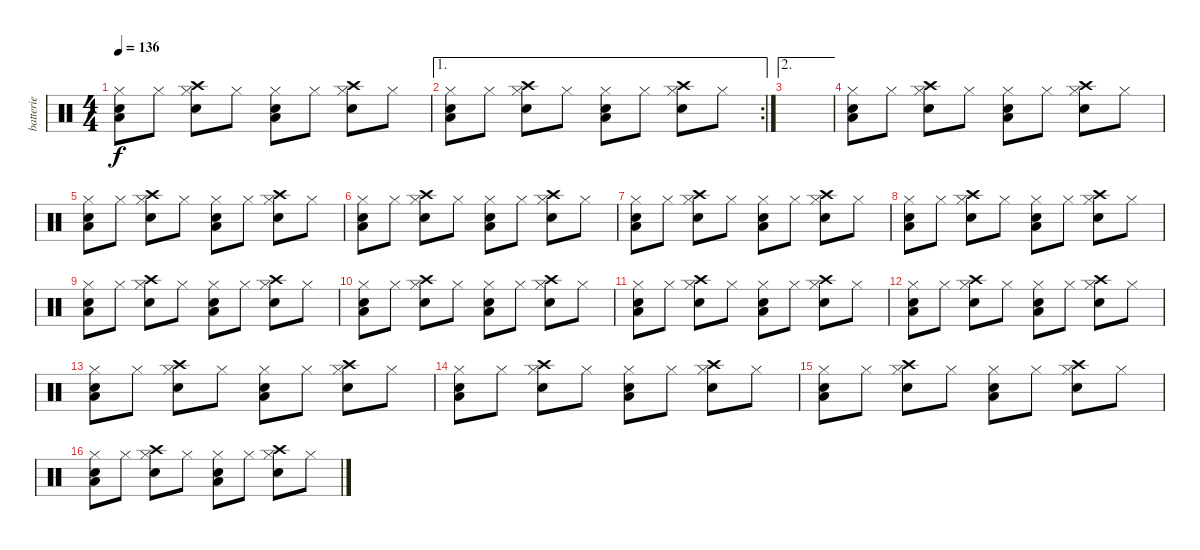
\track ("batterie" "batterie") {instrument percussion}
\staff {score}
\articulation defaults
\ts (4 4)
\tempo 136
\clef neutral
\ks c
("Hi-Hat (closed)" "Snare (hit) 2" "Low Floor Tom (hit)").8{dy f} "Hi-Hat (closed)".8 ("Hi-Hat (closed)" "Crash high (hit)" "Electric Snare (hit)").8 "Hi-Hat (closed)".8 ("Hi-Hat (closed)" "Snare (hit) 2" "Low Floor Tom (hit)").8 "Hi-Hat (closed)".8 ("Hi-Hat (closed)" "Crash high (hit)" "Electric Snare (hit)").8 "Hi-Hat (closed)".8 |
\ae 1
\rc 2
("Hi-Hat (closed)" "Snare (hit) 2" "Low Floor Tom (hit)").8 "Hi-Hat (closed)".8 ("Hi-Hat (closed)" "Crash high (hit)" "Electric Snare (hit)").8 "Hi-Hat (closed)".8 ("Hi-Hat (closed)" "Snare (hit) 2" "Low Floor Tom (hit)").8 "Hi-Hat (closed)".8 ("Hi-Hat (closed)" "Crash high (hit)" "Electric Snare (hit)").8 "Hi-Hat (closed)".8 |
\ae 2
|
("Hi-Hat (closed)" "Snare (hit) 2" "Low Floor Tom (hit)").8 "Hi-Hat (closed)".8 ("Hi-Hat (closed)" "Crash high (hit)" "Electric Snare (hit)").8 "Hi-Hat (closed)".8 ("Hi-Hat (closed)" "Snare (hit) 2" "Low Floor Tom (hit)").8 "Hi-Hat (closed)".8 ("Hi-Hat (closed)" "Crash high (hit)" "Electric Snare (hit)").8 "Hi-Hat (closed)".8 |
("Hi-Hat (closed)" "Snare (hit) 2" "Low Floor Tom (hit)").8 "Hi-Hat (closed)".8 ("Hi-Hat (closed)" "Crash high (hit)" "Electric Snare (hit)").8 "Hi-Hat (closed)".8 ("Hi-Hat (closed)" "Snare (hit) 2" "Low Floor Tom (hit)").8 "Hi-Hat (closed)".8 ("Hi-Hat (closed)" "Crash high (hit)" "Electric Snare (hit)").8 "Hi-Hat (closed)".8 |
("Hi-Hat (closed)" "Snare (hit) 2" "Low Floor Tom (hit)").8 "Hi-Hat (closed)".8 ("Hi-Hat (closed)" "Crash high (hit)" "Electric Snare (hit)").8 "Hi-Hat (closed)".8 ("Hi-Hat (closed)" "Snare (hit) 2" "Low Floor Tom (hit)").8 "Hi-Hat (closed)".8 ("Hi-Hat (closed)" "Crash high (hit)" "Electric Snare (hit)").8 "Hi-Hat (closed)".8 |
("Hi-Hat (closed)" "Snare (hit) 2" "Low Floor Tom (hit)").8 "Hi-Hat (closed)".8 ("Hi-Hat (closed)" "Crash high (hit)" "Electric Snare (hit)").8 "Hi-Hat (closed)".8 ("Hi-Hat (closed)" "Snare (hit) 2" "Low Floor Tom (hit)").8 "Hi-Hat (closed)".8 ("Hi-Hat (closed)" "Crash high (hit)" "Electric Snare (hit)").8 "Hi-Hat (closed)".8 |
("Hi-Hat (closed)" "Snare (hit) 2" "Low Floor Tom (hit)").8 "Hi-Hat (closed)".8 ("Hi-Hat (closed)" "Crash high (hit)" "Electric Snare (hit)").8 "Hi-Hat (closed)".8 ("Hi-Hat (closed)" "Snare (hit) 2" "Low Floor Tom (hit)").8 "Hi-Hat (closed)".8 ("Hi-Hat (closed)" "Crash high (hit)" "Electric Snare (hit)").8 "Hi-Hat (closed)".8 |
("Hi-Hat (closed)" "Snare (hit) 2" "Low Floor Tom (hit)").8 "Hi-Hat (closed)".8 ("Hi-Hat (closed)" "Crash high (hit)" "Electric Snare (hit)").8 "Hi-Hat (closed)".8 ("Hi-Hat (closed)" "Snare (hit) 2" "Low Floor Tom (hit)").8 "Hi-Hat (closed)".8 ("Hi-Hat (closed)" "Crash high (hit)" "Electric Snare (hit)").8 "Hi-Hat (closed)".8 |
("Hi-Hat (closed)" "Snare (hit) 2" "Low Floor Tom (hit)").8 "Hi-Hat (closed)".8 ("Hi-Hat (closed)" "Crash high (hit)" "Electric Snare (hit)").8 "Hi-Hat (closed)".8 ("Hi-Hat (closed)" "Snare (hit) 2" "Low Floor Tom (hit)").8 "Hi-Hat (closed)".8 ("Hi-Hat (closed)" "Crash high (hit)" "Electric Snare (hit)").8 "Hi-Hat (closed)".8 |
("Hi-Hat (closed)" "Snare (hit) 2" "Low Floor Tom (hit)").8 "Hi-Hat (closed)".8 ("Hi-Hat (closed)" "Crash high (hit)" "Electric Snare (hit)").8 "Hi-Hat (closed)".8 ("Hi-Hat (closed)" "Snare (hit) 2" "Low Floor Tom (hit)").8 "Hi-Hat (closed)".8 ("Hi-Hat (closed)" "Crash high (hit)" "Electric Snare (hit)").8 "Hi-Hat (closed)".8 |
("Hi-Hat (closed)" "Snare (hit) 2" "Low Floor Tom (hit)").8 "Hi-Hat (closed)".8 ("Hi-Hat (closed)" "Crash high (hit)" "Electric Snare (hit)").8 "Hi-Hat (closed)".8 ("Hi-Hat (closed)" "Snare (hit) 2" "Low Floor Tom (hit)").8 "Hi-Hat (closed)".8 ("Hi-Hat (closed)" "Crash high (hit)" "Electric Snare (hit)").8 "Hi-Hat (closed)".8 |
("Hi-Hat (closed)" "Snare (hit) 2" "Low Floor Tom (hit)").8 "Hi-Hat (closed)".8 ("Hi-Hat (closed)" "Crash high (hit)" "Electric Snare (hit)").8 "Hi-Hat (closed)".8 ("Hi-Hat (closed)" "Snare (hit) 2" "Low Floor Tom (hit)").8 "Hi-Hat (closed)".8 ("Hi-Hat (closed)" "Crash high (hit)" "Electric Snare (hit)").8 "Hi-Hat (closed)".8 |
("Hi-Hat (closed)" "Snare (hit) 2" "Low Floor Tom (hit)").8 "Hi-Hat (closed)".8 ("Hi-Hat (closed)" "Crash high (hit)" "Electric Snare (hit)").8 "Hi-Hat (closed)".8 ("Hi-Hat (closed)" "Snare (hit) 2" "Low Floor Tom (hit)").8 "Hi-Hat (closed)".8 ("Hi-Hat (closed)" "Crash high (hit)" "Electric Snare (hit)").8 "Hi-Hat (closed)".8 |
("Hi-Hat (closed)" "Snare (hit) 2" "Low Floor Tom (hit)").8 "Hi-Hat (closed)".8 ("Hi-Hat (closed)" "Crash high (hit)" "Electric Snare (hit)").8 "Hi-Hat (closed)".8 ("Hi-Hat (closed)" "Snare (hit) 2" "Low Floor Tom (hit)").8 "Hi-Hat (closed)".8 ("Hi-Hat (closed)" "Crash high (hit)" "Electric Snare (hit)").8 "Hi-Hat (closed)".8 |
("Hi-Hat (closed)" "Snare (hit) 2" "Low Floor Tom (hit)").8 "Hi-Hat (closed)".8 ("Hi-Hat (closed)" "Crash high (hit)" "Electric Snare (hit)").8 "Hi-Hat (closed)".8 ("Hi-Hat (closed)" "Snare (hit) 2" "Low Floor Tom (hit)").8 "Hi-Hat (closed)".8 ("Hi-Hat (closed)" "Crash high (hit)" "Electric Snare (hit)").8 "Hi-Hat (closed)".8
